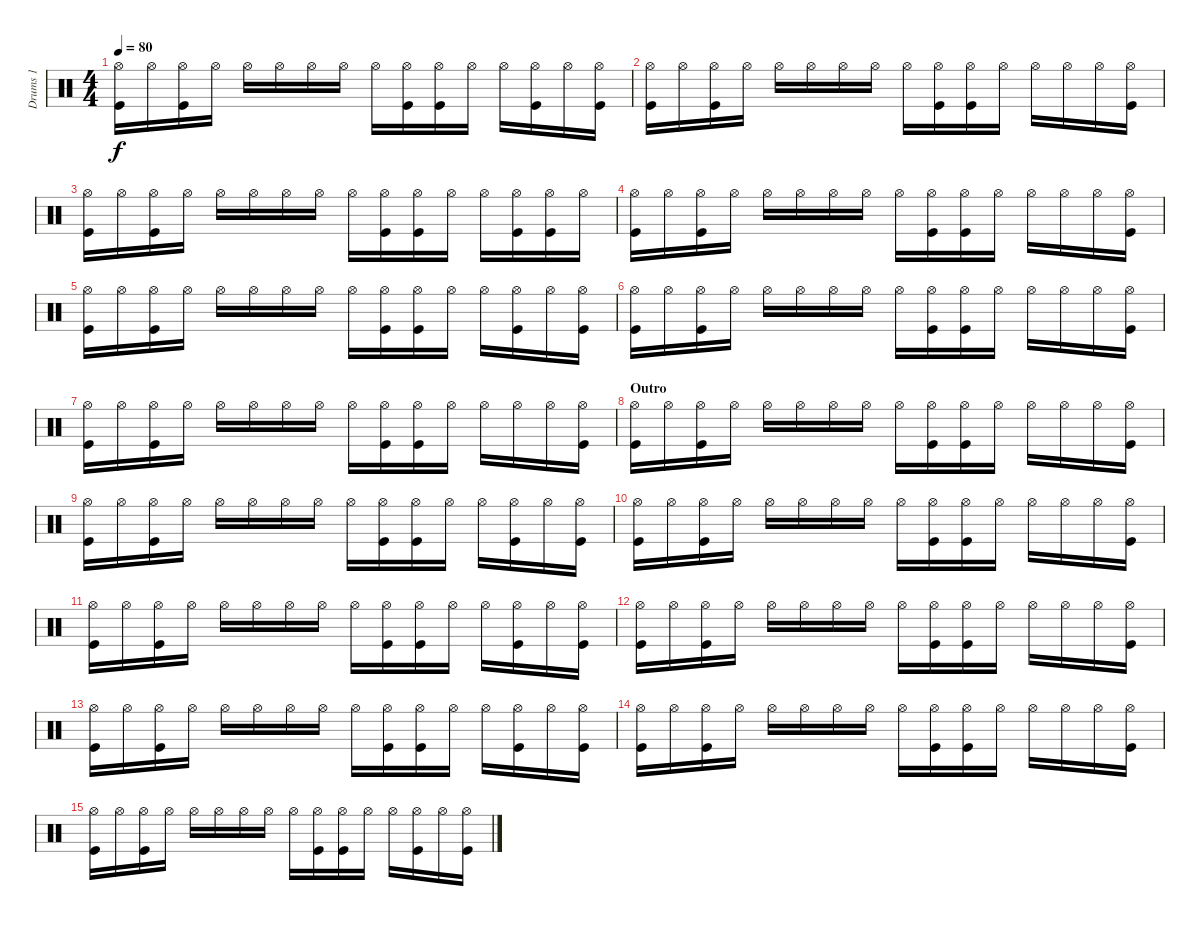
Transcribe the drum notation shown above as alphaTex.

\track ("Drums 1" "Drums 1") {instrument percussion}
\staff {score}
\articulation defaults
\ts (4 4)
\tempo 80
\clef neutral
\ks c
("Hi-Hat (open)" "Kick (hit)").16{dy f} "Hi-Hat (open)".16 ("Hi-Hat (open)" "Kick (hit)").16 "Hi-Hat (open)".16 "Hi-Hat (open)".16 "Hi-Hat (open)".16 "Hi-Hat (open)".16 "Hi-Hat (open)".16 "Hi-Hat (open)".16 ("Hi-Hat (open)" "Kick (hit)").16 ("Hi-Hat (open)" "Kick (hit)").16 "Hi-Hat (open)".16 "Hi-Hat (open)".16 ("Hi-Hat (open)" "Kick (hit)").16 "Hi-Hat (open)".16 ("Hi-Hat (open)" "Kick (hit)").16 |
("Hi-Hat (open)" "Kick (hit)").16 "Hi-Hat (open)".16 ("Hi-Hat (open)" "Kick (hit)").16 "Hi-Hat (open)".16 "Hi-Hat (open)".16 "Hi-Hat (open)".16 "Hi-Hat (open)".16 "Hi-Hat (open)".16 "Hi-Hat (open)".16 ("Hi-Hat (open)" "Kick (hit)").16 ("Hi-Hat (open)" "Kick (hit)").16 "Hi-Hat (open)".16 "Hi-Hat (open)".16 "Hi-Hat (open)".16 "Hi-Hat (open)".16 ("Hi-Hat (open)" "Kick (hit)").16 |
("Hi-Hat (open)" "Kick (hit)").16 "Hi-Hat (open)".16 ("Hi-Hat (open)" "Kick (hit)").16 "Hi-Hat (open)".16 "Hi-Hat (open)".16 "Hi-Hat (open)".16 "Hi-Hat (open)".16 "Hi-Hat (open)".16 "Hi-Hat (open)".16 ("Hi-Hat (open)" "Kick (hit)").16 ("Hi-Hat (open)" "Kick (hit)").16 "Hi-Hat (open)".16 "Hi-Hat (open)".16 ("Hi-Hat (open)" "Kick (hit)").16 ("Hi-Hat (open)" "Kick (hit)").16 "Hi-Hat (open)".16 |
("Hi-Hat (open)" "Kick (hit)").16 "Hi-Hat (open)".16 ("Hi-Hat (open)" "Kick (hit)").16 "Hi-Hat (open)".16 "Hi-Hat (open)".16 "Hi-Hat (open)".16 "Hi-Hat (open)".16 "Hi-Hat (open)".16 "Hi-Hat (open)".16 ("Hi-Hat (open)" "Kick (hit)").16 ("Hi-Hat (open)" "Kick (hit)").16 "Hi-Hat (open)".16 "Hi-Hat (open)".16 "Hi-Hat (open)".16 "Hi-Hat (open)".16 ("Hi-Hat (open)" "Kick (hit)").16 |
("Hi-Hat (open)" "Kick (hit)").16 "Hi-Hat (open)".16 ("Hi-Hat (open)" "Kick (hit)").16 "Hi-Hat (open)".16 "Hi-Hat (open)".16 "Hi-Hat (open)".16 "Hi-Hat (open)".16 "Hi-Hat (open)".16 "Hi-Hat (open)".16 ("Hi-Hat (open)" "Kick (hit)").16 ("Hi-Hat (open)" "Kick (hit)").16 "Hi-Hat (open)".16 "Hi-Hat (open)".16 ("Hi-Hat (open)" "Kick (hit)").16 "Hi-Hat (open)".16 ("Hi-Hat (open)" "Kick (hit)").16 |
("Hi-Hat (open)" "Kick (hit)").16 "Hi-Hat (open)".16 ("Hi-Hat (open)" "Kick (hit)").16 "Hi-Hat (open)".16 "Hi-Hat (open)".16 "Hi-Hat (open)".16 "Hi-Hat (open)".16 "Hi-Hat (open)".16 "Hi-Hat (open)".16 ("Hi-Hat (open)" "Kick (hit)").16 ("Hi-Hat (open)" "Kick (hit)").16 "Hi-Hat (open)".16 "Hi-Hat (open)".16 "Hi-Hat (open)".16 "Hi-Hat (open)".16 ("Hi-Hat (open)" "Kick (hit)").16 |
("Hi-Hat (open)" "Kick (hit)").16 "Hi-Hat (open)".16 ("Hi-Hat (open)" "Kick (hit)").16 "Hi-Hat (open)".16 "Hi-Hat (open)".16 "Hi-Hat (open)".16 "Hi-Hat (open)".16 "Hi-Hat (open)".16 "Hi-Hat (open)".16 ("Hi-Hat (open)" "Kick (hit)").16 ("Hi-Hat (open)" "Kick (hit)").16 "Hi-Hat (open)".16 "Hi-Hat (open)".16 "Hi-Hat (open)".16 "Hi-Hat (open)".16 ("Hi-Hat (open)" "Kick (hit)").16 |
\section ("" "Outro")
("Hi-Hat (open)" "Kick (hit)").16 "Hi-Hat (open)".16 ("Hi-Hat (open)" "Kick (hit)").16 "Hi-Hat (open)".16 "Hi-Hat (open)".16 "Hi-Hat (open)".16 "Hi-Hat (open)".16 "Hi-Hat (open)".16 "Hi-Hat (open)".16 ("Hi-Hat (open)" "Kick (hit)").16 ("Hi-Hat (open)" "Kick (hit)").16 "Hi-Hat (open)".16 "Hi-Hat (open)".16 "Hi-Hat (open)".16 "Hi-Hat (open)".16 ("Hi-Hat (open)" "Kick (hit)").16 |
("Hi-Hat (open)" "Kick (hit)").16 "Hi-Hat (open)".16 ("Hi-Hat (open)" "Kick (hit)").16 "Hi-Hat (open)".16 "Hi-Hat (open)".16 "Hi-Hat (open)".16 "Hi-Hat (open)".16 "Hi-Hat (open)".16 "Hi-Hat (open)".16 ("Hi-Hat (open)" "Kick (hit)").16 ("Hi-Hat (open)" "Kick (hit)").16 "Hi-Hat (open)".16 "Hi-Hat (open)".16 ("Hi-Hat (open)" "Kick (hit)").16 "Hi-Hat (open)".16 ("Hi-Hat (open)" "Kick (hit)").16 |
("Hi-Hat (open)" "Kick (hit)").16 "Hi-Hat (open)".16 ("Hi-Hat (open)" "Kick (hit)").16 "Hi-Hat (open)".16 "Hi-Hat (open)".16 "Hi-Hat (open)".16 "Hi-Hat (open)".16 "Hi-Hat (open)".16 "Hi-Hat (open)".16 ("Hi-Hat (open)" "Kick (hit)").16 ("Hi-Hat (open)" "Kick (hit)").16 "Hi-Hat (open)".16 "Hi-Hat (open)".16 "Hi-Hat (open)".16 "Hi-Hat (open)".16 ("Hi-Hat (open)" "Kick (hit)").16 |
("Hi-Hat (open)" "Kick (hit)").16 "Hi-Hat (open)".16 ("Hi-Hat (open)" "Kick (hit)").16 "Hi-Hat (open)".16 "Hi-Hat (open)".16 "Hi-Hat (open)".16 "Hi-Hat (open)".16 "Hi-Hat (open)".16 "Hi-Hat (open)".16 ("Hi-Hat (open)" "Kick (hit)").16 ("Hi-Hat (open)" "Kick (hit)").16 "Hi-Hat (open)".16 "Hi-Hat (open)".16 ("Hi-Hat (open)" "Kick (hit)").16 "Hi-Hat (open)".16 ("Hi-Hat (open)" "Kick (hit)").16 |
("Hi-Hat (open)" "Kick (hit)").16{volume 8} "Hi-Hat (open)".16 ("Hi-Hat (open)" "Kick (hit)").16 "Hi-Hat (open)".16 "Hi-Hat (open)".16 "Hi-Hat (open)".16 "Hi-Hat (open)".16 "Hi-Hat (open)".16 "Hi-Hat (open)".16 ("Hi-Hat (open)" "Kick (hit)").16 ("Hi-Hat (open)" "Kick (hit)").16 "Hi-Hat (open)".16 "Hi-Hat (open)".16 "Hi-Hat (open)".16 "Hi-Hat (open)".16 ("Hi-Hat (open)" "Kick (hit)").16 |
("Hi-Hat (open)" "Kick (hit)").16 "Hi-Hat (open)".16 ("Hi-Hat (open)" "Kick (hit)").16 "Hi-Hat (open)".16 "Hi-Hat (open)".16 "Hi-Hat (open)".16 "Hi-Hat (open)".16 "Hi-Hat (open)".16 "Hi-Hat (open)".16 ("Hi-Hat (open)" "Kick (hit)").16 ("Hi-Hat (open)" "Kick (hit)").16 "Hi-Hat (open)".16 "Hi-Hat (open)".16 ("Hi-Hat (open)" "Kick (hit)").16 "Hi-Hat (open)".16 ("Hi-Hat (open)" "Kick (hit)").16 |
("Hi-Hat (open)" "Kick (hit)").16{volume 0} "Hi-Hat (open)".16 ("Hi-Hat (open)" "Kick (hit)").16 "Hi-Hat (open)".16 "Hi-Hat (open)".16 "Hi-Hat (open)".16 "Hi-Hat (open)".16 "Hi-Hat (open)".16 "Hi-Hat (open)".16 ("Hi-Hat (open)" "Kick (hit)").16 ("Hi-Hat (open)" "Kick (hit)").16 "Hi-Hat (open)".16 "Hi-Hat (open)".16 "Hi-Hat (open)".16 "Hi-Hat (open)".16 ("Hi-Hat (open)" "Kick (hit)").16 |
("Hi-Hat (open)" "Kick (hit)").16 "Hi-Hat (open)".16 ("Hi-Hat (open)" "Kick (hit)").16 "Hi-Hat (open)".16 "Hi-Hat (open)".16 "Hi-Hat (open)".16 "Hi-Hat (open)".16 "Hi-Hat (open)".16 "Hi-Hat (open)".16 ("Hi-Hat (open)" "Kick (hit)").16 ("Hi-Hat (open)" "Kick (hit)").16 "Hi-Hat (open)".16 "Hi-Hat (open)".16 ("Hi-Hat (open)" "Kick (hit)").16 "Hi-Hat (open)".16 ("Hi-Hat (open)" "Kick (hit)").16
